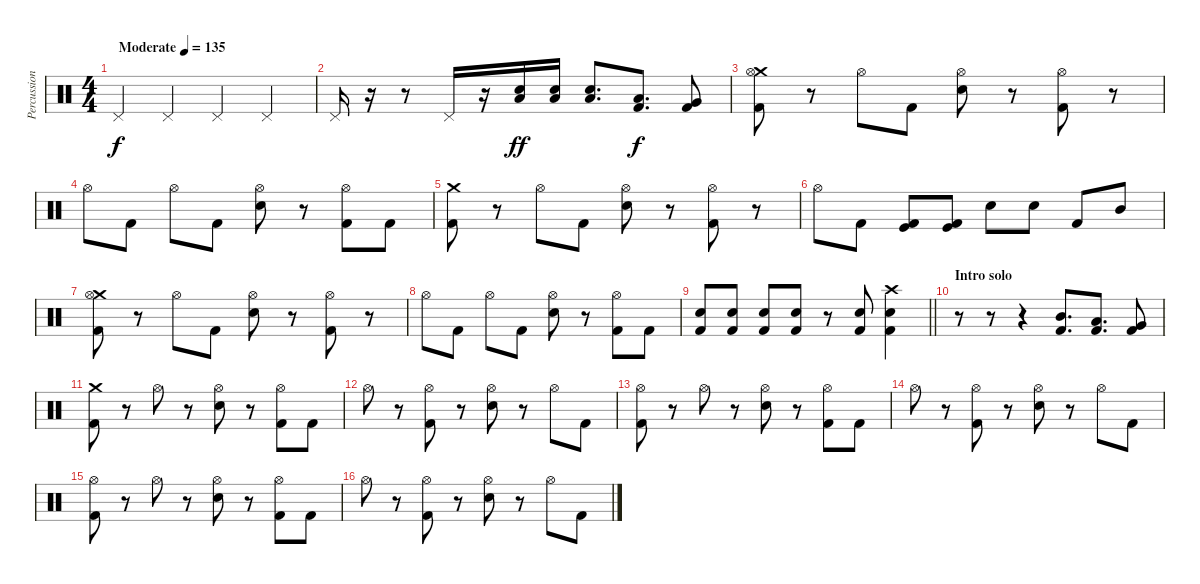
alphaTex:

\track ("Percussion" "Percussion") {instrument percussion}
\staff {score}
\articulation defaults
\ts (4 4)
\tempo (135 "Moderate")
\clef neutral
\ks c "Pedal Hi-Hat (hit)".4{dy f} "Pedal Hi-Hat (hit)".4 "Pedal Hi-Hat (hit)".4 "Pedal Hi-Hat (hit)".4
|
"Pedal Hi-Hat (hit)".16 r.16 r.8 "Pedal Hi-Hat (hit)".16 r.16 ("Low Tom (hit)" "Electric Snare (hit)").16{dy ff} ("Low Tom (hit)" "Electric Snare (hit)").16 ("Low Tom (hit)" "Electric Snare (hit)").8{d} ("Kick (hit) 2" "Low Tom (hit)").8{d dy f} ("Kick (hit) 2" "Very Low Tom (hit)").8 |
("Crash medium (hit)" "Hi-Hat (open)" "Kick (hit) 2").8 r.8 "Hi-Hat (open)".8 "Kick (hit) 2".8 ("Hi-Hat (open)" "Electric Snare (hit)").8 r.8 ("Hi-Hat (open)" "Kick (hit) 2").8 r.8 |
"Hi-Hat (open)".8 "Kick (hit) 2".8 "Hi-Hat (open)".8 "Kick (hit) 2".8 ("Hi-Hat (open)" "Electric Snare (hit)").8 r.8 ("Hi-Hat (open)" "Kick (hit) 2").8 "Kick (hit) 2".8 |
("Crash medium (hit)" "Kick (hit) 2").8 r.8 "Hi-Hat (open)".8 "Kick (hit) 2".8 ("Hi-Hat (open)" "Electric Snare (hit)").8 r.8 ("Hi-Hat (open)" "Kick (hit) 2").8 r.8 |
"Hi-Hat (open)".8 "Kick (hit) 2".8 ("Kick (hit)" "Kick (hit) 2").8 ("Kick (hit)" "Kick (hit) 2").8 "Electric Snare (hit)".8 "Electric Snare (hit)".8 "Kick (hit) 2".8 "Mid Tom (hit)".8 |
("Crash medium (hit)" "Hi-Hat (open)" "Kick (hit) 2").8 r.8 "Hi-Hat (open)".8 "Kick (hit) 2".8 ("Hi-Hat (open)" "Electric Snare (hit)").8 r.8 ("Hi-Hat (open)" "Kick (hit) 2").8 r.8 |
"Hi-Hat (open)".8 "Kick (hit) 2".8 "Hi-Hat (open)".8 "Kick (hit) 2".8 ("Hi-Hat (open)" "Electric Snare (hit)").8 r.8 ("Hi-Hat (open)" "Kick (hit) 2").8 "Kick (hit) 2".8 |
\barLineRight lightlight
("Electric Snare (hit)" "Kick (hit) 2").8 ("Electric Snare (hit)" "Kick (hit) 2").8 ("Electric Snare (hit)" "Kick (hit) 2").8 ("Electric Snare (hit)" "Kick (hit) 2").8 r.8 ("Electric Snare (hit)" "Kick (hit) 2").8 ("Crash high (hit)" "Electric Snare (hit)" "Kick (hit) 2").4 |
\section ("" "Intro solo")
r.8 r.8 r.4 ("Kick (hit) 2" "Mid Tom (hit)").8{d} ("Kick (hit) 2" "Low Tom (hit)").8{d} ("Kick (hit) 2" "Very Low Tom (hit)").8 |
("Crash medium (hit)" "Kick (hit) 2").8 r.8 "Hi-Hat (open)".8 r.8 ("Hi-Hat (open)" "Electric Snare (hit)").8 r.8 ("Hi-Hat (open)" "Kick (hit) 2").8 "Kick (hit) 2".8 |
"Hi-Hat (open)".8 r.8 ("Hi-Hat (open)" "Kick (hit) 2").8 r.8 ("Hi-Hat (open)" "Electric Snare (hit)").8 r.8 "Hi-Hat (open)".8 "Kick (hit) 2".8 |
("Hi-Hat (open)" "Kick (hit) 2").8 r.8 "Hi-Hat (open)".8 r.8 ("Hi-Hat (open)" "Electric Snare (hit)").8 r.8 ("Hi-Hat (open)" "Kick (hit) 2").8 "Kick (hit) 2".8 |
"Hi-Hat (open)".8 r.8 ("Hi-Hat (open)" "Kick (hit) 2").8 r.8 ("Hi-Hat (open)" "Electric Snare (hit)").8 r.8 "Hi-Hat (open)".8 "Kick (hit) 2".8 |
("Hi-Hat (open)" "Kick (hit) 2").8 r.8 "Hi-Hat (open)".8 r.8 ("Hi-Hat (open)" "Electric Snare (hit)").8 r.8 ("Hi-Hat (open)" "Kick (hit) 2").8 "Kick (hit) 2".8 |
"Hi-Hat (open)".8 r.8 ("Hi-Hat (open)" "Kick (hit) 2").8 r.8 ("Hi-Hat (open)" "Electric Snare (hit)").8 r.8 "Hi-Hat (open)".8 "Kick (hit) 2".8
